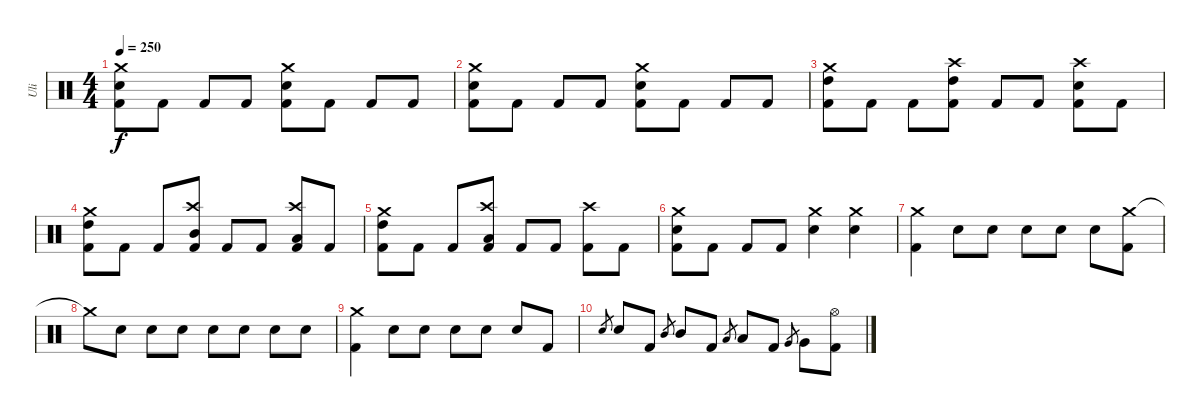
\track ("Uli" "Uli") {instrument percussion}
\staff {score}
\articulation defaults
\ts (4 4)
\tempo 250
\clef neutral
\ks c
("Crash medium (hit)" "Snare (hit) 2" "Kick (hit) 2").8{dy f} "Kick (hit) 2".8 "Kick (hit) 2".8 "Kick (hit) 2".8 ("Crash medium (hit)" "Snare (hit) 2" "Kick (hit) 2").8 "Kick (hit) 2".8 "Kick (hit) 2".8 "Kick (hit) 2".8 |
("Crash medium (hit)" "Snare (hit) 2" "Kick (hit) 2").8 "Kick (hit) 2".8 "Kick (hit) 2".8 "Kick (hit) 2".8 ("Crash medium (hit)" "Snare (hit) 2" "Kick (hit) 2").8 "Kick (hit) 2".8 "Kick (hit) 2".8 "Kick (hit) 2".8 |
("Crash medium (hit)" "High Tom (hit)" "Kick (hit) 2").8 "Kick (hit) 2".8 "Kick (hit) 2".8 ("Crash high (hit)" "High Tom (hit)" "Kick (hit) 2").8 "Kick (hit) 2".8 "Kick (hit) 2".8 ("Crash high (hit)" "Snare (hit) 2" "Kick (hit) 2").8 "Kick (hit) 2".8 |
("Crash medium (hit)" "High Tom (hit)" "Kick (hit) 2").8 "Kick (hit) 2".8 "Kick (hit) 2".8 ("Crash high (hit)" "Mid Tom (hit)" "Kick (hit) 2").8 "Kick (hit) 2".8 "Kick (hit) 2".8 ("Crash high (hit)" "Low Tom (hit)" "Kick (hit) 2").8 "Kick (hit) 2".8 |
("Crash medium (hit)" "High Tom (hit)" "Kick (hit) 2").8 "Kick (hit) 2".8 "Kick (hit) 2".8 ("Crash high (hit)" "Low Tom (hit)" "Kick (hit) 2").8 "Kick (hit) 2".8 "Kick (hit) 2".8 ("Crash high (hit)" "Kick (hit) 2").8 "Kick (hit) 2".8 |
("Crash medium (hit)" "Snare (hit) 2" "Kick (hit) 2").8 "Kick (hit) 2".8 "Kick (hit) 2".8 "Kick (hit) 2".8 ("Crash medium (hit)" "Snare (hit) 2").4 ("Crash medium (hit)" "Snare (hit) 2").4 |
("Crash medium (hit)" "Kick (hit) 2").4 "Snare (hit) 2".8 "Snare (hit) 2".8 "Snare (hit) 2".8 "Snare (hit) 2".8 "Snare (hit) 2".8 ("Crash medium (hit)" "Kick (hit) 2").8 |
"Crash medium (hit)"{t}.8 "Snare (hit) 2".8 "Snare (hit) 2".8 "Snare (hit) 2".8 "Snare (hit) 2".8 "Snare (hit) 2".8 "Snare (hit) 2".8 "Snare (hit) 2".8 |
("Crash medium (hit)" "Kick (hit) 2").4 "Snare (hit) 2".8 "Snare (hit) 2".8 "Snare (hit) 2".8 "Snare (hit) 2".8 "Snare (hit) 2".8 "Kick (hit) 2".8 |
"Snare (hit) 2".8{gr} "Snare (hit) 2".8 "Kick (hit) 2".8 "Mid Tom (hit)".8{gr} "Mid Tom (hit)".8 "Kick (hit) 2".8 "Low Tom (hit)".8{gr} "Low Tom (hit)".8 "Kick (hit) 2".8 "Very Low Tom (hit)".8{gr} "Very Low Tom (hit)".8 ("Hi-Hat (open)" "Kick (hit) 2").8
